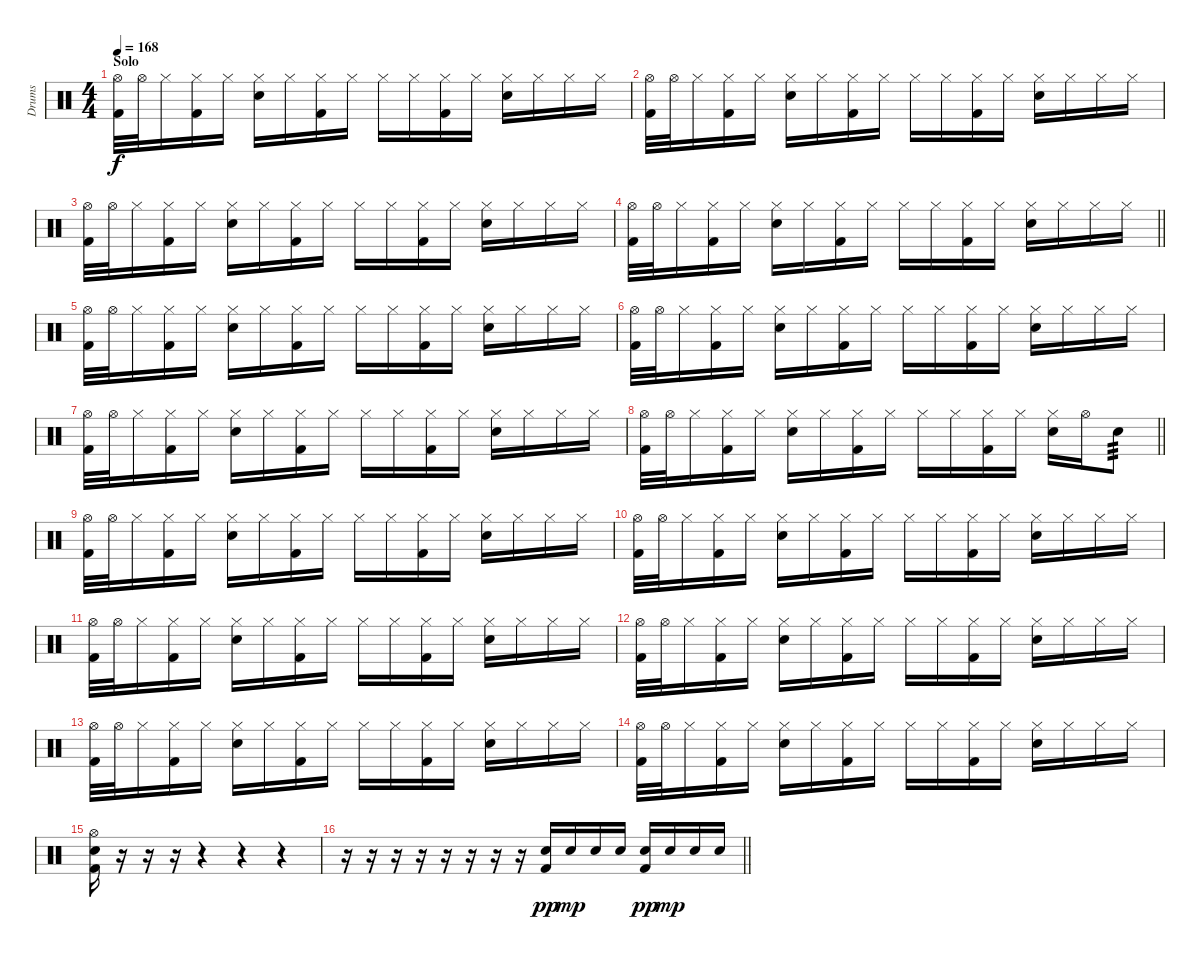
\track ("Drums" "Drums") {instrument percussion}
\staff {score}
\articulation defaults
\ts (4 4)
\section ("" "Solo")
\tempo 168
\clef neutral
\ks c
("Hi-Hat (open)" "Kick (hit) 2").32{dy f} "Hi-Hat (open)".32 "Hi-Hat (closed)".16 ("Hi-Hat (closed)" "Kick (hit) 2").16 "Hi-Hat (closed)".16 ("Hi-Hat (closed)" "Snare (hit) 2").16 "Hi-Hat (closed)".16 ("Hi-Hat (closed)" "Kick (hit) 2").16 "Hi-Hat (closed)".16 "Hi-Hat (closed)".16 "Hi-Hat (closed)".16 ("Hi-Hat (closed)" "Kick (hit) 2").16 "Hi-Hat (closed)".16 ("Hi-Hat (closed)" "Snare (hit) 2").16 "Hi-Hat (closed)".16 "Hi-Hat (closed)".16 "Hi-Hat (closed)".16 |
("Hi-Hat (open)" "Kick (hit) 2").32 "Hi-Hat (open)".32 "Hi-Hat (closed)".16 ("Hi-Hat (closed)" "Kick (hit) 2").16 "Hi-Hat (closed)".16 ("Hi-Hat (closed)" "Snare (hit) 2").16 "Hi-Hat (closed)".16 ("Hi-Hat (closed)" "Kick (hit) 2").16 "Hi-Hat (closed)".16 "Hi-Hat (closed)".16 "Hi-Hat (closed)".16 ("Hi-Hat (closed)" "Kick (hit) 2").16 "Hi-Hat (closed)".16 ("Hi-Hat (closed)" "Snare (hit) 2").16 "Hi-Hat (closed)".16 "Hi-Hat (closed)".16 "Hi-Hat (closed)".16 |
("Hi-Hat (open)" "Kick (hit) 2").32 "Hi-Hat (open)".32 "Hi-Hat (closed)".16 ("Hi-Hat (closed)" "Kick (hit) 2").16 "Hi-Hat (closed)".16 ("Hi-Hat (closed)" "Snare (hit) 2").16 "Hi-Hat (closed)".16 ("Hi-Hat (closed)" "Kick (hit) 2").16 "Hi-Hat (closed)".16 "Hi-Hat (closed)".16 "Hi-Hat (closed)".16 ("Hi-Hat (closed)" "Kick (hit) 2").16 "Hi-Hat (closed)".16 ("Hi-Hat (closed)" "Snare (hit) 2").16 "Hi-Hat (closed)".16 "Hi-Hat (closed)".16 "Hi-Hat (closed)".16 |
\barLineRight lightlight
("Hi-Hat (open)" "Kick (hit) 2").32 "Hi-Hat (open)".32 "Hi-Hat (closed)".16 ("Hi-Hat (closed)" "Kick (hit) 2").16 "Hi-Hat (closed)".16 ("Hi-Hat (closed)" "Snare (hit) 2").16 "Hi-Hat (closed)".16 ("Hi-Hat (closed)" "Kick (hit) 2").16 "Hi-Hat (closed)".16 "Hi-Hat (closed)".16 "Hi-Hat (closed)".16 ("Hi-Hat (closed)" "Kick (hit) 2").16 "Hi-Hat (closed)".16 ("Hi-Hat (closed)" "Snare (hit) 2").16 "Hi-Hat (closed)".16 "Hi-Hat (closed)".16 "Hi-Hat (closed)".16 |
("Hi-Hat (open)" "Kick (hit) 2").32 "Hi-Hat (open)".32 "Hi-Hat (closed)".16 ("Hi-Hat (closed)" "Kick (hit) 2").16 "Hi-Hat (closed)".16 ("Hi-Hat (closed)" "Snare (hit) 2").16 "Hi-Hat (closed)".16 ("Hi-Hat (closed)" "Kick (hit) 2").16 "Hi-Hat (closed)".16 "Hi-Hat (closed)".16 "Hi-Hat (closed)".16 ("Hi-Hat (closed)" "Kick (hit) 2").16 "Hi-Hat (closed)".16 ("Hi-Hat (closed)" "Snare (hit) 2").16 "Hi-Hat (closed)".16 "Hi-Hat (closed)".16 "Hi-Hat (closed)".16 |
("Hi-Hat (open)" "Kick (hit) 2").32 "Hi-Hat (open)".32 "Hi-Hat (closed)".16 ("Hi-Hat (closed)" "Kick (hit) 2").16 "Hi-Hat (closed)".16 ("Hi-Hat (closed)" "Snare (hit) 2").16 "Hi-Hat (closed)".16 ("Hi-Hat (closed)" "Kick (hit) 2").16 "Hi-Hat (closed)".16 "Hi-Hat (closed)".16 "Hi-Hat (closed)".16 ("Hi-Hat (closed)" "Kick (hit) 2").16 "Hi-Hat (closed)".16 ("Hi-Hat (closed)" "Snare (hit) 2").16 "Hi-Hat (closed)".16 "Hi-Hat (closed)".16 "Hi-Hat (closed)".16 |
("Hi-Hat (open)" "Kick (hit) 2").32 "Hi-Hat (open)".32 "Hi-Hat (closed)".16 ("Hi-Hat (closed)" "Kick (hit) 2").16 "Hi-Hat (closed)".16 ("Hi-Hat (closed)" "Snare (hit) 2").16 "Hi-Hat (closed)".16 ("Hi-Hat (closed)" "Kick (hit) 2").16 "Hi-Hat (closed)".16 "Hi-Hat (closed)".16 "Hi-Hat (closed)".16 ("Hi-Hat (closed)" "Kick (hit) 2").16 "Hi-Hat (closed)".16 ("Hi-Hat (closed)" "Snare (hit) 2").16 "Hi-Hat (closed)".16 "Hi-Hat (closed)".16 "Hi-Hat (closed)".16 |
\barLineRight lightlight
("Hi-Hat (open)" "Kick (hit) 2").32 "Hi-Hat (open)".32 "Hi-Hat (closed)".16 ("Hi-Hat (closed)" "Kick (hit) 2").16 "Hi-Hat (closed)".16 ("Hi-Hat (closed)" "Snare (hit) 2").16 "Hi-Hat (closed)".16 ("Hi-Hat (closed)" "Kick (hit) 2").16 "Hi-Hat (closed)".16 "Hi-Hat (closed)".16 "Hi-Hat (closed)".16 ("Hi-Hat (closed)" "Kick (hit) 2").16 "Hi-Hat (closed)".16 ("Hi-Hat (closed)" "Snare (hit) 2").16 "Hi-Hat (open)".16 "Snare (hit) 2".8{tp 3} |
("Hi-Hat (open)" "Kick (hit) 2").32 "Hi-Hat (open)".32 "Hi-Hat (closed)".16 ("Hi-Hat (closed)" "Kick (hit) 2").16 "Hi-Hat (closed)".16 ("Hi-Hat (closed)" "Snare (hit) 2").16 "Hi-Hat (closed)".16 ("Hi-Hat (closed)" "Kick (hit) 2").16 "Hi-Hat (closed)".16 "Hi-Hat (closed)".16 "Hi-Hat (closed)".16 ("Hi-Hat (closed)" "Kick (hit) 2").16 "Hi-Hat (closed)".16 ("Hi-Hat (closed)" "Snare (hit) 2").16 "Hi-Hat (closed)".16 "Hi-Hat (closed)".16 "Hi-Hat (closed)".16 |
("Hi-Hat (open)" "Kick (hit) 2").32 "Hi-Hat (open)".32 "Hi-Hat (closed)".16 ("Hi-Hat (closed)" "Kick (hit) 2").16 "Hi-Hat (closed)".16 ("Hi-Hat (closed)" "Snare (hit) 2").16 "Hi-Hat (closed)".16 ("Hi-Hat (closed)" "Kick (hit) 2").16 "Hi-Hat (closed)".16 "Hi-Hat (closed)".16 "Hi-Hat (closed)".16 ("Hi-Hat (closed)" "Kick (hit) 2").16 "Hi-Hat (closed)".16 ("Hi-Hat (closed)" "Snare (hit) 2").16 "Hi-Hat (closed)".16 "Hi-Hat (closed)".16 "Hi-Hat (closed)".16 |
("Hi-Hat (open)" "Kick (hit) 2").32 "Hi-Hat (open)".32 "Hi-Hat (closed)".16 ("Hi-Hat (closed)" "Kick (hit) 2").16 "Hi-Hat (closed)".16 ("Hi-Hat (closed)" "Snare (hit) 2").16 "Hi-Hat (closed)".16 ("Hi-Hat (closed)" "Kick (hit) 2").16 "Hi-Hat (closed)".16 "Hi-Hat (closed)".16 "Hi-Hat (closed)".16 ("Hi-Hat (closed)" "Kick (hit) 2").16 "Hi-Hat (closed)".16 ("Hi-Hat (closed)" "Snare (hit) 2").16 "Hi-Hat (closed)".16 "Hi-Hat (closed)".16 "Hi-Hat (closed)".16 |
("Hi-Hat (open)" "Kick (hit) 2").32 "Hi-Hat (open)".32 "Hi-Hat (closed)".16 ("Hi-Hat (closed)" "Kick (hit) 2").16 "Hi-Hat (closed)".16 ("Hi-Hat (closed)" "Snare (hit) 2").16 "Hi-Hat (closed)".16 ("Hi-Hat (closed)" "Kick (hit) 2").16 "Hi-Hat (closed)".16 "Hi-Hat (closed)".16 "Hi-Hat (closed)".16 ("Hi-Hat (closed)" "Kick (hit) 2").16 "Hi-Hat (closed)".16 ("Hi-Hat (closed)" "Snare (hit) 2").16 "Hi-Hat (closed)".16 "Hi-Hat (closed)".16 "Hi-Hat (closed)".16 |
("Hi-Hat (open)" "Kick (hit) 2").32 "Hi-Hat (open)".32 "Hi-Hat (closed)".16 ("Hi-Hat (closed)" "Kick (hit) 2").16 "Hi-Hat (closed)".16 ("Hi-Hat (closed)" "Snare (hit) 2").16 "Hi-Hat (closed)".16 ("Hi-Hat (closed)" "Kick (hit) 2").16 "Hi-Hat (closed)".16 "Hi-Hat (closed)".16 "Hi-Hat (closed)".16 ("Hi-Hat (closed)" "Kick (hit) 2").16 "Hi-Hat (closed)".16 ("Hi-Hat (closed)" "Snare (hit) 2").16 "Hi-Hat (closed)".16 "Hi-Hat (closed)".16 "Hi-Hat (closed)".16 |
("Hi-Hat (open)" "Kick (hit) 2").32 "Hi-Hat (open)".32 "Hi-Hat (closed)".16 ("Hi-Hat (closed)" "Kick (hit) 2").16 "Hi-Hat (closed)".16 ("Hi-Hat (closed)" "Snare (hit) 2").16 "Hi-Hat (closed)".16 ("Hi-Hat (closed)" "Kick (hit) 2").16 "Hi-Hat (closed)".16 "Hi-Hat (closed)".16 "Hi-Hat (closed)".16 ("Hi-Hat (closed)" "Kick (hit) 2").16 "Hi-Hat (closed)".16 ("Hi-Hat (closed)" "Snare (hit) 2").16 "Hi-Hat (closed)".16 "Hi-Hat (closed)".16 "Hi-Hat (closed)".16 |
("Hi-Hat (open)" "Snare (hit) 2" "Kick (hit) 2").16 r.16 r.16 r.16 r.4 r.4 r.4 |
\barLineRight lightlight
r.16 r.16 r.16 r.16 r.16 r.16 r.16 r.16 ("Snare (hit) 2" "Kick (hit) 2").16{dy pp} "Snare (hit) 2".16{dy mp} "Snare (hit) 2".16 "Snare (hit) 2".16 ("Snare (hit) 2" "Kick (hit) 2").16{dy pp} "Snare (hit) 2".16{dy mp} "Snare (hit) 2".16 "Snare (hit) 2".16
